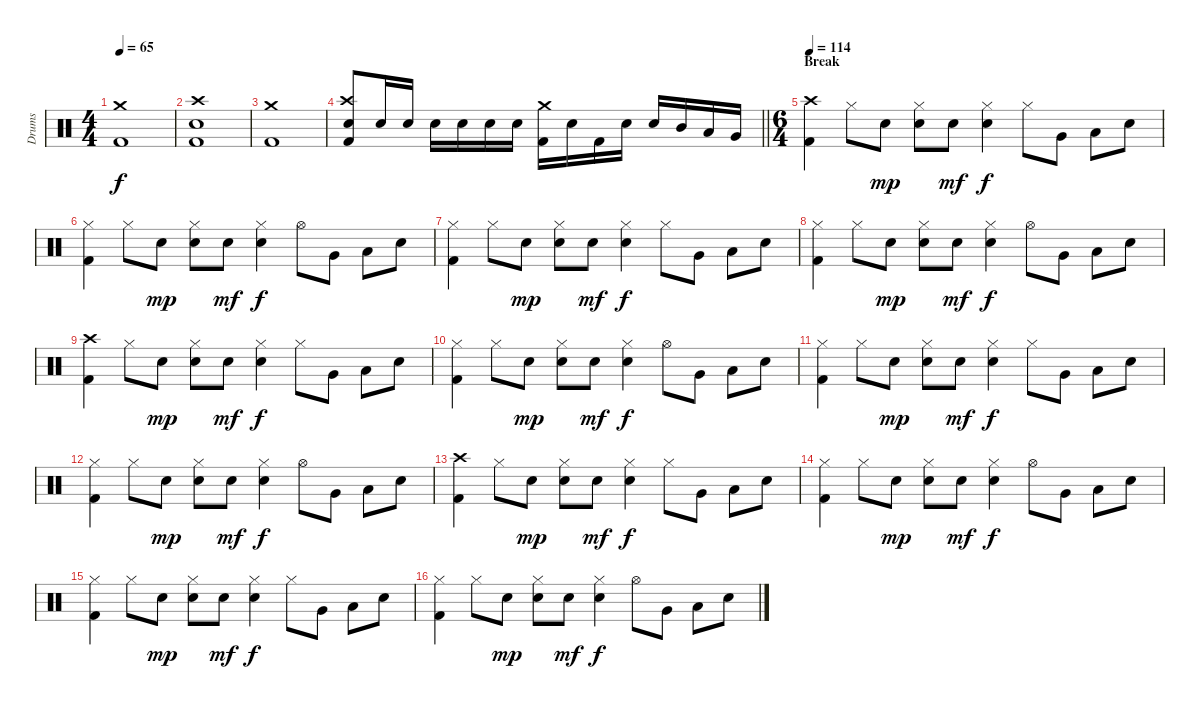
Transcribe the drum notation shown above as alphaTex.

\track ("Drums" "Drums") {instrument percussion}
\staff {score}
\articulation defaults
\ts (4 4)
\tempo 65
\clef neutral
\ks c
("Crash medium (hit)" "Kick (hit) 2").1{dy f} |
("Crash high (hit)" "Electric Snare (hit)" "Kick (hit) 2").1 |
("Crash medium (hit)" "Kick (hit) 2").1 |
\barLineRight lightlight
("Crash high (hit)" "Electric Snare (hit)" "Kick (hit) 2").8 "Electric Snare (hit)".16 "Electric Snare (hit)".16 "Electric Snare (hit)".16 "Electric Snare (hit)".16 "Electric Snare (hit)".16 "Electric Snare (hit)".16 ("Crash medium (hit)" "Kick (hit) 2").16 "Electric Snare (hit)".16 "Kick (hit) 2".16 "Electric Snare (hit)".16 "Electric Snare (hit)".16 "Mid Tom (hit)".16 "Low Tom (hit)".16 "Very Low Tom (hit)".16 |
\ts (6 4)
\section ("" "Break")
\tempo 114
("Crash high (hit)" "Kick (hit) 2").4 "Hi-Hat (closed)".8 "Electric Snare (hit)".8{dy mp} ("Hi-Hat (closed)" "Electric Snare (hit)").8 "Electric Snare (hit)".8{dy mf} ("Hi-Hat (closed)" "Electric Snare (hit)").4{dy f} "Hi-Hat (closed)".8 "Very Low Tom (hit)".8 "Low Tom (hit)".8 "Electric Snare (hit)".8 |
("Hi-Hat (closed)" "Kick (hit) 2").4 "Hi-Hat (closed)".8 "Electric Snare (hit)".8{dy mp} ("Hi-Hat (closed)" "Electric Snare (hit)").8 "Electric Snare (hit)".8{dy mf} ("Hi-Hat (closed)" "Electric Snare (hit)").4{dy f} "Hi-Hat (open)".8 "Very Low Tom (hit)".8 "Low Tom (hit)".8 "Electric Snare (hit)".8 |
("Hi-Hat (closed)" "Kick (hit) 2").4 "Hi-Hat (closed)".8 "Electric Snare (hit)".8{dy mp} ("Hi-Hat (closed)" "Electric Snare (hit)").8 "Electric Snare (hit)".8{dy mf} ("Hi-Hat (closed)" "Electric Snare (hit)").4{dy f} "Hi-Hat (closed)".8 "Very Low Tom (hit)".8 "Low Tom (hit)".8 "Electric Snare (hit)".8 |
("Hi-Hat (closed)" "Kick (hit) 2").4 "Hi-Hat (closed)".8 "Electric Snare (hit)".8{dy mp} ("Hi-Hat (closed)" "Electric Snare (hit)").8 "Electric Snare (hit)".8{dy mf} ("Hi-Hat (closed)" "Electric Snare (hit)").4{dy f} "Hi-Hat (open)".8 "Very Low Tom (hit)".8 "Low Tom (hit)".8 "Electric Snare (hit)".8 |
("Crash high (hit)" "Kick (hit) 2").4 "Hi-Hat (closed)".8 "Electric Snare (hit)".8{dy mp} ("Hi-Hat (closed)" "Electric Snare (hit)").8 "Electric Snare (hit)".8{dy mf} ("Hi-Hat (closed)" "Electric Snare (hit)").4{dy f} "Hi-Hat (closed)".8 "Very Low Tom (hit)".8 "Low Tom (hit)".8 "Electric Snare (hit)".8 |
("Hi-Hat (closed)" "Kick (hit) 2").4 "Hi-Hat (closed)".8 "Electric Snare (hit)".8{dy mp} ("Hi-Hat (closed)" "Electric Snare (hit)").8 "Electric Snare (hit)".8{dy mf} ("Hi-Hat (closed)" "Electric Snare (hit)").4{dy f} "Hi-Hat (open)".8 "Very Low Tom (hit)".8 "Low Tom (hit)".8 "Electric Snare (hit)".8 |
("Hi-Hat (closed)" "Kick (hit) 2").4 "Hi-Hat (closed)".8 "Electric Snare (hit)".8{dy mp} ("Hi-Hat (closed)" "Electric Snare (hit)").8 "Electric Snare (hit)".8{dy mf} ("Hi-Hat (closed)" "Electric Snare (hit)").4{dy f} "Hi-Hat (closed)".8 "Very Low Tom (hit)".8 "Low Tom (hit)".8 "Electric Snare (hit)".8 |
("Hi-Hat (closed)" "Kick (hit) 2").4 "Hi-Hat (closed)".8 "Electric Snare (hit)".8{dy mp} ("Hi-Hat (closed)" "Electric Snare (hit)").8 "Electric Snare (hit)".8{dy mf} ("Hi-Hat (closed)" "Electric Snare (hit)").4{dy f} "Hi-Hat (open)".8 "Very Low Tom (hit)".8 "Low Tom (hit)".8 "Electric Snare (hit)".8 |
("Crash high (hit)" "Kick (hit) 2").4 "Hi-Hat (closed)".8 "Electric Snare (hit)".8{dy mp} ("Hi-Hat (closed)" "Electric Snare (hit)").8 "Electric Snare (hit)".8{dy mf} ("Hi-Hat (closed)" "Electric Snare (hit)").4{dy f} "Hi-Hat (closed)".8 "Very Low Tom (hit)".8 "Low Tom (hit)".8 "Electric Snare (hit)".8 |
("Hi-Hat (closed)" "Kick (hit) 2").4 "Hi-Hat (closed)".8 "Electric Snare (hit)".8{dy mp} ("Hi-Hat (closed)" "Electric Snare (hit)").8 "Electric Snare (hit)".8{dy mf} ("Hi-Hat (closed)" "Electric Snare (hit)").4{dy f} "Hi-Hat (open)".8 "Very Low Tom (hit)".8 "Low Tom (hit)".8 "Electric Snare (hit)".8 |
("Hi-Hat (closed)" "Kick (hit) 2").4 "Hi-Hat (closed)".8 "Electric Snare (hit)".8{dy mp} ("Hi-Hat (closed)" "Electric Snare (hit)").8 "Electric Snare (hit)".8{dy mf} ("Hi-Hat (closed)" "Electric Snare (hit)").4{dy f} "Hi-Hat (closed)".8 "Very Low Tom (hit)".8 "Low Tom (hit)".8 "Electric Snare (hit)".8 |
("Hi-Hat (closed)" "Kick (hit) 2").4 "Hi-Hat (closed)".8 "Electric Snare (hit)".8{dy mp} ("Hi-Hat (closed)" "Electric Snare (hit)").8 "Electric Snare (hit)".8{dy mf} ("Hi-Hat (closed)" "Electric Snare (hit)").4{dy f} "Hi-Hat (open)".8 "Very Low Tom (hit)".8 "Low Tom (hit)".8 "Electric Snare (hit)".8
